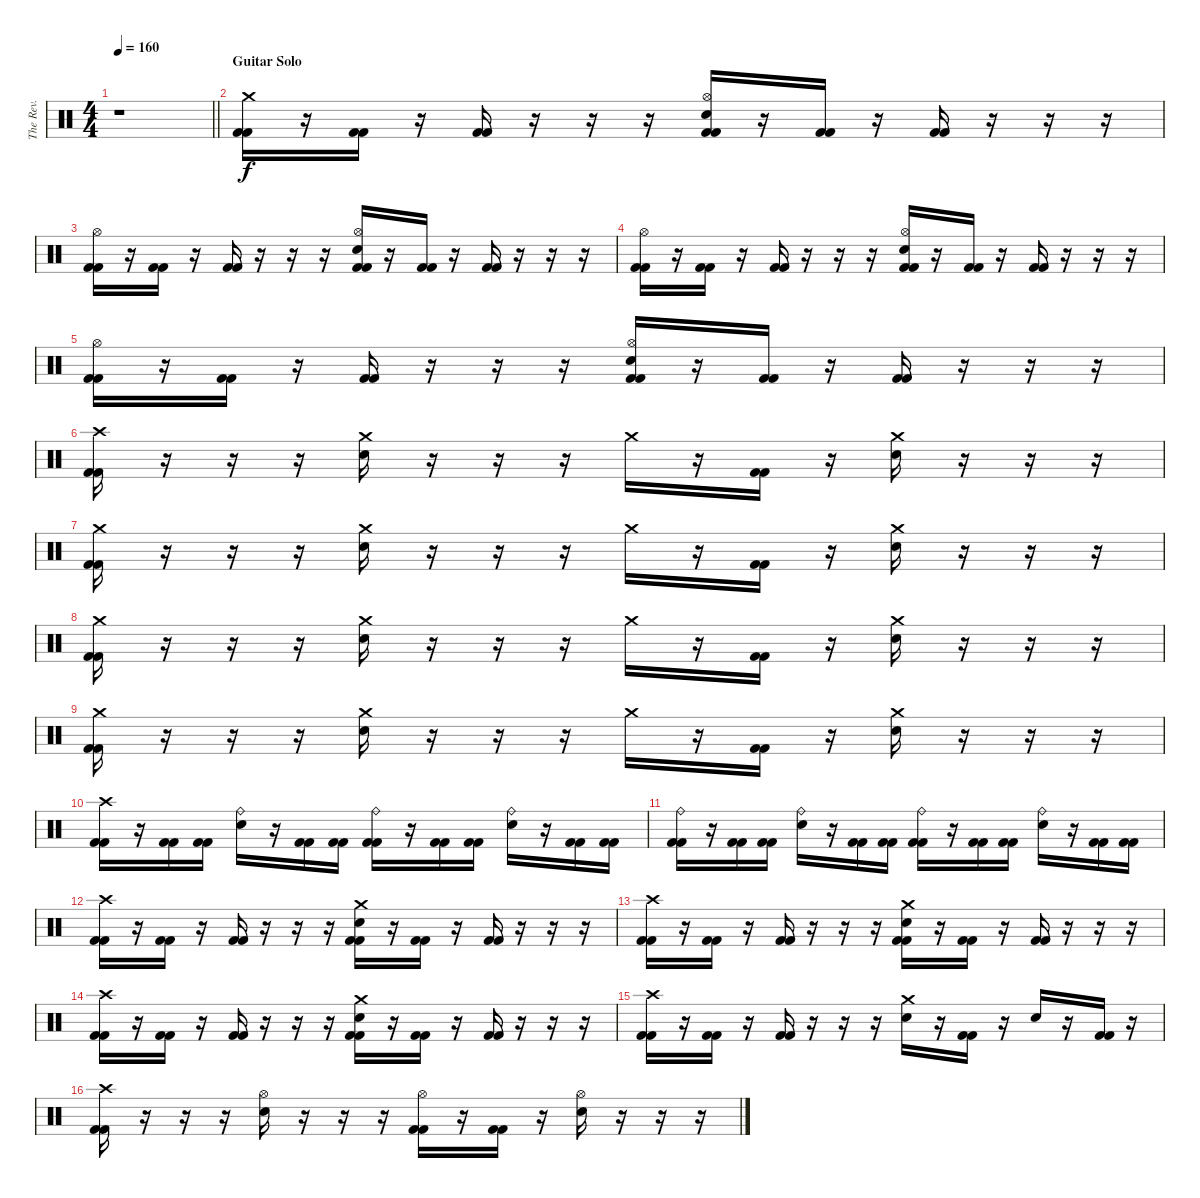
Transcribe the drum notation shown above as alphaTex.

\track ("The Rev." "The Rev.") {instrument percussion}
\staff {score}
\articulation defaults
\ts (4 4)
\tempo 160
\clef neutral
\barLineRight lightlight
\ks c
r.1{dy p} |
\section ("" "Guitar Solo")
("Crash medium (hit)" "Kick (hit) 2" "Kick (hit) 2").16{dy f} r.16 ("Kick (hit) 2" "Kick (hit) 2").16 r.16 ("Kick (hit) 2" "Kick (hit) 2").16 r.16 r.16 r.16 ("Hi-Hat (open)" "Electric Snare (hit)" "Kick (hit) 2" "Kick (hit) 2").16 r.16 ("Kick (hit) 2" "Kick (hit) 2").16 r.16 ("Kick (hit) 2" "Kick (hit) 2").16 r.16 r.16 r.16 |
("Hi-Hat (open)" "Kick (hit) 2" "Kick (hit) 2").16 r.16 ("Kick (hit) 2" "Kick (hit) 2").16 r.16 ("Kick (hit) 2" "Kick (hit) 2").16 r.16 r.16 r.16 ("Hi-Hat (open)" "Electric Snare (hit)" "Kick (hit) 2" "Kick (hit) 2").16 r.16 ("Kick (hit) 2" "Kick (hit) 2").16 r.16 ("Kick (hit) 2" "Kick (hit) 2").16 r.16 r.16 r.16 |
("Hi-Hat (open)" "Kick (hit) 2" "Kick (hit) 2").16 r.16 ("Kick (hit) 2" "Kick (hit) 2").16 r.16 ("Kick (hit) 2" "Kick (hit) 2").16 r.16 r.16 r.16 ("Hi-Hat (open)" "Electric Snare (hit)" "Kick (hit) 2" "Kick (hit) 2").16 r.16 ("Kick (hit) 2" "Kick (hit) 2").16 r.16 ("Kick (hit) 2" "Kick (hit) 2").16 r.16 r.16 r.16 |
("Hi-Hat (open)" "Kick (hit) 2" "Kick (hit) 2").16 r.16 ("Kick (hit) 2" "Kick (hit) 2").16 r.16 ("Kick (hit) 2" "Kick (hit) 2").16 r.16 r.16 r.16 ("Hi-Hat (open)" "Electric Snare (hit)" "Kick (hit) 2" "Kick (hit) 2").16 r.16 ("Kick (hit) 2" "Kick (hit) 2").16 r.16 ("Kick (hit) 2" "Kick (hit) 2").16 r.16 r.16 r.16 |
("Crash high (hit)" "Kick (hit) 2" "Kick (hit) 2").16 r.16 r.16 r.16 ("Crash medium (hit)" "Electric Snare (hit)").16 r.16 r.16 r.16 "Crash medium (hit)".16 r.16 ("Kick (hit) 2" "Kick (hit) 2").16 r.16 ("Crash medium (hit)" "Electric Snare (hit)").16 r.16 r.16 r.16 |
("Crash medium (hit)" "Kick (hit) 2" "Kick (hit) 2").16 r.16 r.16 r.16 ("Crash medium (hit)" "Electric Snare (hit)").16 r.16 r.16 r.16 "Crash medium (hit)".16 r.16 ("Kick (hit) 2" "Kick (hit) 2").16 r.16 ("Crash medium (hit)" "Electric Snare (hit)").16 r.16 r.16 r.16 |
("Crash medium (hit)" "Kick (hit) 2" "Kick (hit) 2").16 r.16 r.16 r.16 ("Crash medium (hit)" "Electric Snare (hit)").16 r.16 r.16 r.16 "Crash medium (hit)".16 r.16 ("Kick (hit) 2" "Kick (hit) 2").16 r.16 ("Crash medium (hit)" "Electric Snare (hit)").16 r.16 r.16 r.16 |
("Crash medium (hit)" "Kick (hit) 2" "Kick (hit) 2").16 r.16 r.16 r.16 ("Crash medium (hit)" "Electric Snare (hit)").16 r.16 r.16 r.16 "Crash medium (hit)".16 r.16 ("Kick (hit) 2" "Kick (hit) 2").16 r.16 ("Crash medium (hit)" "Electric Snare (hit)").16 r.16 r.16 r.16 |
("Crash high (hit)" "Kick (hit) 2" "Kick (hit) 2").16 r.16 ("Kick (hit) 2" "Kick (hit) 2").16 ("Kick (hit) 2" "Kick (hit) 2").16 ("Ride (bell)" "Electric Snare (hit)").16 r.16 ("Kick (hit) 2" "Kick (hit) 2").16 ("Kick (hit) 2" "Kick (hit) 2").16 ("Ride (bell)" "Kick (hit) 2" "Kick (hit) 2").16 r.16 ("Kick (hit) 2" "Kick (hit) 2").16 ("Kick (hit) 2" "Kick (hit) 2").16 ("Ride (bell)" "Electric Snare (hit)").16 r.16 ("Kick (hit) 2" "Kick (hit) 2").16 ("Kick (hit) 2" "Kick (hit) 2").16 |
("Ride (bell)" "Kick (hit) 2" "Kick (hit) 2").16 r.16 ("Kick (hit) 2" "Kick (hit) 2").16 ("Kick (hit) 2" "Kick (hit) 2").16 ("Ride (bell)" "Electric Snare (hit)").16 r.16 ("Kick (hit) 2" "Kick (hit) 2").16 ("Kick (hit) 2" "Kick (hit) 2").16 ("Ride (bell)" "Kick (hit) 2" "Kick (hit) 2").16 r.16 ("Kick (hit) 2" "Kick (hit) 2").16 ("Kick (hit) 2" "Kick (hit) 2").16 ("Ride (bell)" "Electric Snare (hit)").16 r.16 ("Kick (hit) 2" "Kick (hit) 2").16 ("Kick (hit) 2" "Kick (hit) 2").16 |
("Crash high (hit)" "Kick (hit) 2" "Kick (hit) 2").16 r.16 ("Kick (hit) 2" "Kick (hit) 2").16 r.16 ("Kick (hit) 2" "Kick (hit) 2").16 r.16 r.16 r.16 ("Crash medium (hit)" "Electric Snare (hit)" "Kick (hit) 2" "Kick (hit) 2").16 r.16 ("Kick (hit) 2" "Kick (hit) 2").16 r.16 ("Kick (hit) 2" "Kick (hit) 2").16 r.16 r.16 r.16 |
("Crash high (hit)" "Kick (hit) 2" "Kick (hit) 2").16 r.16 ("Kick (hit) 2" "Kick (hit) 2").16 r.16 ("Kick (hit) 2" "Kick (hit) 2").16 r.16 r.16 r.16 ("Crash medium (hit)" "Electric Snare (hit)" "Kick (hit) 2" "Kick (hit) 2").16 r.16 ("Kick (hit) 2" "Kick (hit) 2").16 r.16 ("Kick (hit) 2" "Kick (hit) 2").16 r.16 r.16 r.16 |
("Crash high (hit)" "Kick (hit) 2" "Kick (hit) 2").16 r.16 ("Kick (hit) 2" "Kick (hit) 2").16 r.16 ("Kick (hit) 2" "Kick (hit) 2").16 r.16 r.16 r.16 ("Crash medium (hit)" "Electric Snare (hit)" "Kick (hit) 2" "Kick (hit) 2").16 r.16 ("Kick (hit) 2" "Kick (hit) 2").16 r.16 ("Kick (hit) 2" "Kick (hit) 2").16 r.16 r.16 r.16 |
("Crash high (hit)" "Kick (hit) 2" "Kick (hit) 2").16 r.16 ("Kick (hit) 2" "Kick (hit) 2").16 r.16 ("Kick (hit) 2" "Kick (hit) 2").16 r.16 r.16 r.16 ("Crash medium (hit)" "Electric Snare (hit)").16 r.16 ("Kick (hit) 2" "Kick (hit) 2").16 r.16 "Electric Snare (hit)".16 r.16 ("Kick (hit) 2" "Kick (hit) 2").16 r.16 |
("Crash high (hit)" "Kick (hit) 2" "Kick (hit) 2").16 r.16 r.16 r.16 ("Hi-Hat (open)" "Electric Snare (hit)").16 r.16 r.16 r.16 ("Hi-Hat (open)" "Kick (hit) 2" "Kick (hit) 2").16 r.16 ("Kick (hit) 2" "Kick (hit) 2").16 r.16 ("Hi-Hat (open)" "Electric Snare (hit)").16 r.16 r.16 r.16
